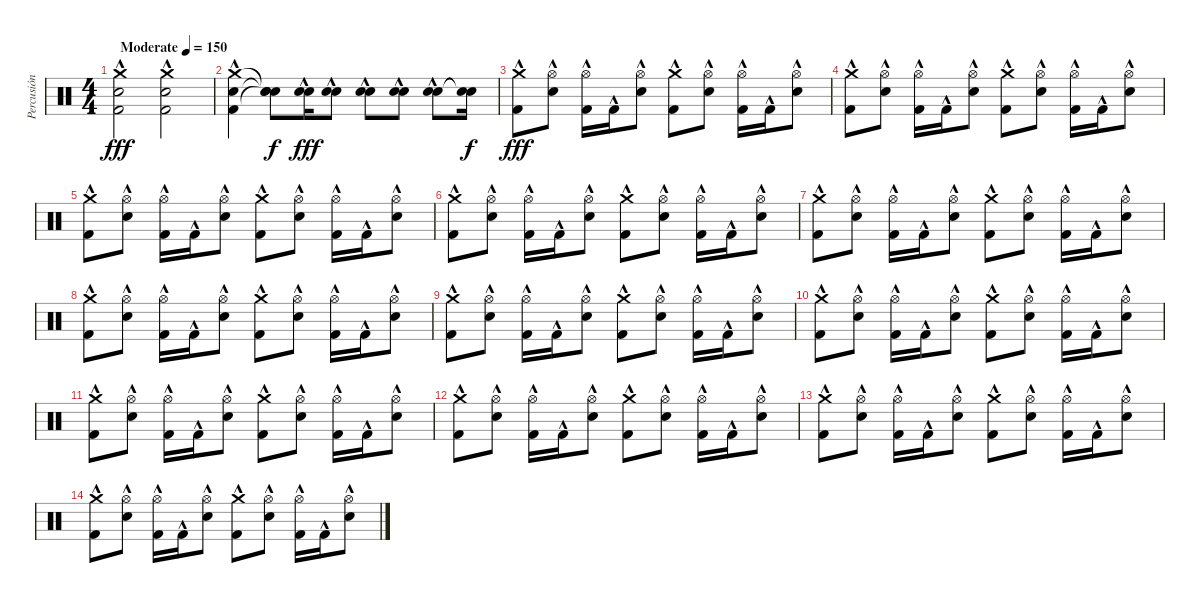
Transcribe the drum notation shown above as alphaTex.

\track ("Percusión" "Percusión") {instrument percussion}
\staff {score}
\articulation defaults
\ts (4 4)
\tempo (150 "Moderate")
\clef neutral
\ks c
("Crash medium (hit)"{hac} "Electric Snare (hit)"{hac} "Kick (hit) 2"{hac}).2{dy fff} ("Crash medium (hit)"{hac} "Electric Snare (hit)"{hac} "Kick (hit) 2"{hac}).2 |
("Crash medium (hit)"{hac} "Electric Snare (hit)"{hac} "Kick (hit) 2"{hac}).4 ("Snare (hit)"{t} "Electric Snare (hit)"{t} "Snare (hit)"{t}).8{dy f} ("Electric Snare (hit)"{hac} "Electric Snare (hit)"{hac}).16{dy fff} ("Electric Snare (hit)"{hac} "Electric Snare (hit)"{hac}).8 ("Electric Snare (hit)"{hac} "Electric Snare (hit)"{hac}).8 ("Electric Snare (hit)"{hac} "Electric Snare (hit)"{hac}).8 ("Electric Snare (hit)"{hac} "Electric Snare (hit)"{hac}).8 ("Snare (hit)"{t} "Snare (hit)"{t}).16{dy f} |
("Crash medium (hit)"{hac} "Kick (hit) 2"{hac}).8{dy fff} ("Hi-Hat (open)"{hac} "Electric Snare (hit)"{hac}).8 ("Hi-Hat (open)"{hac} "Kick (hit) 2"{hac}).16 "Kick (hit) 2"{hac}.16 ("Hi-Hat (open)"{hac} "Electric Snare (hit)"{hac}).8 ("Crash medium (hit)"{hac} "Kick (hit) 2"{hac}).8 ("Hi-Hat (open)"{hac} "Electric Snare (hit)"{hac}).8 ("Hi-Hat (open)"{hac} "Kick (hit) 2"{hac}).16 "Kick (hit) 2"{hac}.16 ("Hi-Hat (open)"{hac} "Electric Snare (hit)"{hac}).8 |
("Crash medium (hit)"{hac} "Kick (hit) 2"{hac}).8 ("Hi-Hat (open)"{hac} "Electric Snare (hit)"{hac}).8 ("Hi-Hat (open)"{hac} "Kick (hit) 2"{hac}).16 "Kick (hit) 2"{hac}.16 ("Hi-Hat (open)"{hac} "Electric Snare (hit)"{hac}).8 ("Crash medium (hit)"{hac} "Kick (hit) 2"{hac}).8 ("Hi-Hat (open)"{hac} "Electric Snare (hit)"{hac}).8 ("Hi-Hat (open)"{hac} "Kick (hit) 2"{hac}).16 "Kick (hit) 2"{hac}.16 ("Hi-Hat (open)"{hac} "Electric Snare (hit)"{hac}).8 |
("Crash medium (hit)"{hac} "Kick (hit) 2"{hac}).8 ("Hi-Hat (open)"{hac} "Electric Snare (hit)"{hac}).8 ("Hi-Hat (open)"{hac} "Kick (hit) 2"{hac}).16 "Kick (hit) 2"{hac}.16 ("Hi-Hat (open)"{hac} "Electric Snare (hit)"{hac}).8 ("Crash medium (hit)"{hac} "Kick (hit) 2"{hac}).8 ("Hi-Hat (open)"{hac} "Electric Snare (hit)"{hac}).8 ("Hi-Hat (open)"{hac} "Kick (hit) 2"{hac}).16 "Kick (hit) 2"{hac}.16 ("Hi-Hat (open)"{hac} "Electric Snare (hit)"{hac}).8 |
("Crash medium (hit)"{hac} "Kick (hit) 2"{hac}).8 ("Hi-Hat (open)"{hac} "Electric Snare (hit)"{hac}).8 ("Hi-Hat (open)"{hac} "Kick (hit) 2"{hac}).16 "Kick (hit) 2"{hac}.16 ("Hi-Hat (open)"{hac} "Electric Snare (hit)"{hac}).8 ("Crash medium (hit)"{hac} "Kick (hit) 2"{hac}).8 ("Hi-Hat (open)"{hac} "Electric Snare (hit)"{hac}).8 ("Hi-Hat (open)"{hac} "Kick (hit) 2"{hac}).16 "Kick (hit) 2"{hac}.16 ("Hi-Hat (open)"{hac} "Electric Snare (hit)"{hac}).8 |
("Crash medium (hit)"{hac} "Kick (hit) 2"{hac}).8 ("Hi-Hat (open)"{hac} "Electric Snare (hit)"{hac}).8 ("Hi-Hat (open)"{hac} "Kick (hit) 2"{hac}).16 "Kick (hit) 2"{hac}.16 ("Hi-Hat (open)"{hac} "Electric Snare (hit)"{hac}).8 ("Crash medium (hit)"{hac} "Kick (hit) 2"{hac}).8 ("Hi-Hat (open)"{hac} "Electric Snare (hit)"{hac}).8 ("Hi-Hat (open)"{hac} "Kick (hit) 2"{hac}).16 "Kick (hit) 2"{hac}.16 ("Hi-Hat (open)"{hac} "Electric Snare (hit)"{hac}).8 |
("Crash medium (hit)"{hac} "Kick (hit) 2"{hac}).8 ("Hi-Hat (open)"{hac} "Electric Snare (hit)"{hac}).8 ("Hi-Hat (open)"{hac} "Kick (hit) 2"{hac}).16 "Kick (hit) 2"{hac}.16 ("Hi-Hat (open)"{hac} "Electric Snare (hit)"{hac}).8 ("Crash medium (hit)"{hac} "Kick (hit) 2"{hac}).8 ("Hi-Hat (open)"{hac} "Electric Snare (hit)"{hac}).8 ("Hi-Hat (open)"{hac} "Kick (hit) 2"{hac}).16 "Kick (hit) 2"{hac}.16 ("Hi-Hat (open)"{hac} "Electric Snare (hit)"{hac}).8 |
("Crash medium (hit)"{hac} "Kick (hit) 2"{hac}).8 ("Hi-Hat (open)"{hac} "Electric Snare (hit)"{hac}).8 ("Hi-Hat (open)"{hac} "Kick (hit) 2"{hac}).16 "Kick (hit) 2"{hac}.16 ("Hi-Hat (open)"{hac} "Electric Snare (hit)"{hac}).8 ("Crash medium (hit)"{hac} "Kick (hit) 2"{hac}).8 ("Hi-Hat (open)"{hac} "Electric Snare (hit)"{hac}).8 ("Hi-Hat (open)"{hac} "Kick (hit) 2"{hac}).16 "Kick (hit) 2"{hac}.16 ("Hi-Hat (open)"{hac} "Electric Snare (hit)"{hac}).8 |
("Crash medium (hit)"{hac} "Kick (hit) 2"{hac}).8 ("Hi-Hat (open)"{hac} "Electric Snare (hit)"{hac}).8 ("Hi-Hat (open)"{hac} "Kick (hit) 2"{hac}).16 "Kick (hit) 2"{hac}.16 ("Hi-Hat (open)"{hac} "Electric Snare (hit)"{hac}).8 ("Crash medium (hit)"{hac} "Kick (hit) 2"{hac}).8 ("Hi-Hat (open)"{hac} "Electric Snare (hit)"{hac}).8 ("Hi-Hat (open)"{hac} "Kick (hit) 2"{hac}).16 "Kick (hit) 2"{hac}.16 ("Hi-Hat (open)"{hac} "Electric Snare (hit)"{hac}).8 |
("Crash medium (hit)"{hac} "Kick (hit) 2"{hac}).8 ("Hi-Hat (open)"{hac} "Electric Snare (hit)"{hac}).8 ("Hi-Hat (open)"{hac} "Kick (hit) 2"{hac}).16 "Kick (hit) 2"{hac}.16 ("Hi-Hat (open)"{hac} "Electric Snare (hit)"{hac}).8 ("Crash medium (hit)"{hac} "Kick (hit) 2"{hac}).8 ("Hi-Hat (open)"{hac} "Electric Snare (hit)"{hac}).8 ("Hi-Hat (open)"{hac} "Kick (hit) 2"{hac}).16 "Kick (hit) 2"{hac}.16 ("Hi-Hat (open)"{hac} "Electric Snare (hit)"{hac}).8 |
("Crash medium (hit)"{hac} "Kick (hit) 2"{hac}).8 ("Hi-Hat (open)"{hac} "Electric Snare (hit)"{hac}).8 ("Hi-Hat (open)"{hac} "Kick (hit) 2"{hac}).16 "Kick (hit) 2"{hac}.16 ("Hi-Hat (open)"{hac} "Electric Snare (hit)"{hac}).8 ("Crash medium (hit)"{hac} "Kick (hit) 2"{hac}).8 ("Hi-Hat (open)"{hac} "Electric Snare (hit)"{hac}).8 ("Hi-Hat (open)"{hac} "Kick (hit) 2"{hac}).16 "Kick (hit) 2"{hac}.16 ("Hi-Hat (open)"{hac} "Electric Snare (hit)"{hac}).8 |
("Crash medium (hit)"{hac} "Kick (hit) 2"{hac}).8 ("Hi-Hat (open)"{hac} "Electric Snare (hit)"{hac}).8 ("Hi-Hat (open)"{hac} "Kick (hit) 2"{hac}).16 "Kick (hit) 2"{hac}.16 ("Hi-Hat (open)"{hac} "Electric Snare (hit)"{hac}).8 ("Crash medium (hit)"{hac} "Kick (hit) 2"{hac}).8 ("Hi-Hat (open)"{hac} "Electric Snare (hit)"{hac}).8 ("Hi-Hat (open)"{hac} "Kick (hit) 2"{hac}).16 "Kick (hit) 2"{hac}.16 ("Hi-Hat (open)"{hac} "Electric Snare (hit)"{hac}).8 |
("Crash medium (hit)"{hac} "Kick (hit) 2"{hac}).8 ("Hi-Hat (open)"{hac} "Electric Snare (hit)"{hac}).8 ("Hi-Hat (open)"{hac} "Kick (hit) 2"{hac}).16 "Kick (hit) 2"{hac}.16 ("Hi-Hat (open)"{hac} "Electric Snare (hit)"{hac}).8 ("Crash medium (hit)"{hac} "Kick (hit) 2"{hac}).8 ("Hi-Hat (open)"{hac} "Electric Snare (hit)"{hac}).8 ("Hi-Hat (open)"{hac} "Kick (hit) 2"{hac}).16 "Kick (hit) 2"{hac}.16 ("Hi-Hat (open)"{hac} "Electric Snare (hit)"{hac}).8
